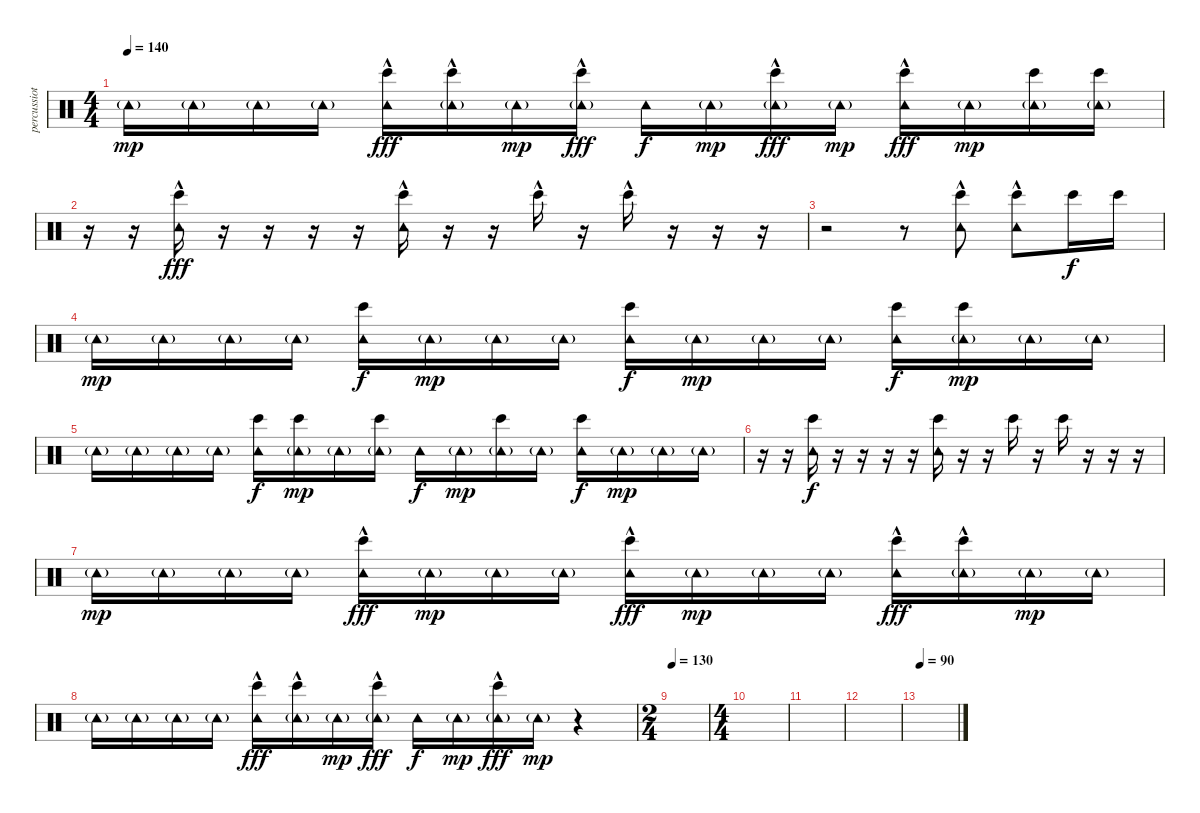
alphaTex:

\track ("percussiot" "percussiot") {instrument percussion}
\staff {score}
\articulation defaults
\ts (4 4)
\tempo 140
\clef neutral
\ks c "Tambourine (hit)"{g}.16{dy mp} "Tambourine (hit)"{g}.16 "Tambourine (hit)"{g}.16 "Tambourine (hit)"{g}.16
("Tambourine (hit)" "Bongo High (hit)"{hac}).16{dy fff} ("Tambourine (hit)"{g} "Bongo High (hit)"{hac}).16 "Tambourine (hit)"{g}.16{dy mp} ("Tambourine (hit)"{g} "Bongo High (hit)"{hac}).16{dy fff} "Tambourine (hit)".16{dy f} "Tambourine (hit)"{g}.16{dy mp} ("Tambourine (hit)"{g} "Bongo High (hit)"{hac}).16{dy fff} "Tambourine (hit)"{g}.16{dy mp} ("Tambourine (hit)" "Bongo High (hit)"{hac}).16{dy fff} "Tambourine (hit)"{g}.16{dy mp} ("Tambourine (hit)"{g} "Bongo High (hit)").16 ("Tambourine (hit)"{g} "Bongo High (hit)").16 |
r.16 r.16 ("Tambourine (hit)" "Bongo High (hit)"{hac}).16{dy fff} r.16 r.16 r.16 r.16 ("Tambourine (hit)" "Bongo High (hit)"{hac}).16 r.16 r.16 "Bongo High (hit)"{hac}.16 r.16 "Bongo High (hit)"{hac}.16 r.16 r.16 r.16 |
r.2 r.8 ("Tambourine (hit)" "Bongo High (hit)"{hac}).8 ("Tambourine (hit)" "Bongo High (hit)"{hac}).8 "Bongo High (hit)".16{dy f} "Bongo High (hit)".16 |
"Tambourine (hit)"{g}.16{dy mp} "Tambourine (hit)"{g}.16 "Tambourine (hit)"{g}.16 "Tambourine (hit)"{g}.16 ("Tambourine (hit)" "Bongo High (hit)").16{dy f} "Tambourine (hit)"{g}.16{dy mp} "Tambourine (hit)"{g}.16 "Tambourine (hit)"{g}.16 ("Tambourine (hit)" "Bongo High (hit)").16{dy f} "Tambourine (hit)"{g}.16{dy mp} "Tambourine (hit)"{g}.16 "Tambourine (hit)"{g}.16 ("Tambourine (hit)" "Bongo High (hit)").16{dy f} ("Tambourine (hit)"{g} "Bongo High (hit)").16{dy mp} "Tambourine (hit)"{g}.16 "Tambourine (hit)"{g}.16 |
"Tambourine (hit)"{g}.16 "Tambourine (hit)"{g}.16 "Tambourine (hit)"{g}.16 "Tambourine (hit)"{g}.16 ("Tambourine (hit)" "Bongo High (hit)").16{dy f} ("Tambourine (hit)"{g} "Bongo High (hit)").16{dy mp} "Tambourine (hit)"{g}.16 ("Tambourine (hit)"{g} "Bongo High (hit)").16 "Tambourine (hit)".16{dy f} "Tambourine (hit)"{g}.16{dy mp} ("Tambourine (hit)"{g} "Bongo High (hit)").16 "Tambourine (hit)"{g}.16 ("Tambourine (hit)" "Bongo High (hit)").16{dy f} "Tambourine (hit)"{g}.16{dy mp} "Tambourine (hit)"{g}.16 "Tambourine (hit)"{g}.16 |
r.16 r.16 ("Tambourine (hit)" "Bongo High (hit)").16{dy f} r.16 r.16 r.16 r.16 ("Tambourine (hit)" "Bongo High (hit)").16 r.16 r.16 "Bongo High (hit)".16 r.16 "Bongo High (hit)".16 r.16 r.16 r.16 |
"Tambourine (hit)"{g}.16{dy mp} "Tambourine (hit)"{g}.16 "Tambourine (hit)"{g}.16 "Tambourine (hit)"{g}.16 ("Tambourine (hit)" "Bongo High (hit)"{hac}).16{dy fff} "Tambourine (hit)"{g}.16{dy mp} "Tambourine (hit)"{g}.16 "Tambourine (hit)"{g}.16 ("Tambourine (hit)" "Bongo High (hit)"{hac}).16{dy fff} "Tambourine (hit)"{g}.16{dy mp} "Tambourine (hit)"{g}.16 "Tambourine (hit)"{g}.16 ("Tambourine (hit)" "Bongo High (hit)"{hac}).16{dy fff} ("Tambourine (hit)"{g} "Bongo High (hit)"{hac}).16 "Tambourine (hit)"{g}.16{dy mp} "Tambourine (hit)"{g}.16 |
"Tambourine (hit)"{g}.16 "Tambourine (hit)"{g}.16 "Tambourine (hit)"{g}.16 "Tambourine (hit)"{g}.16 ("Tambourine (hit)" "Bongo High (hit)"{hac}).16{dy fff} ("Tambourine (hit)"{g} "Bongo High (hit)"{hac}).16 "Tambourine (hit)"{g}.16{dy mp} ("Tambourine (hit)"{g} "Bongo High (hit)"{hac}).16{dy fff} "Tambourine (hit)".16{dy f} "Tambourine (hit)"{g}.16{dy mp} ("Tambourine (hit)"{g} "Bongo High (hit)"{hac}).16{dy fff} "Tambourine (hit)"{g}.16{dy mp} r.4 |
\ts (2 4)
\tempo 130
|
\ts (4 4)
|
|
|
\tempo 90
